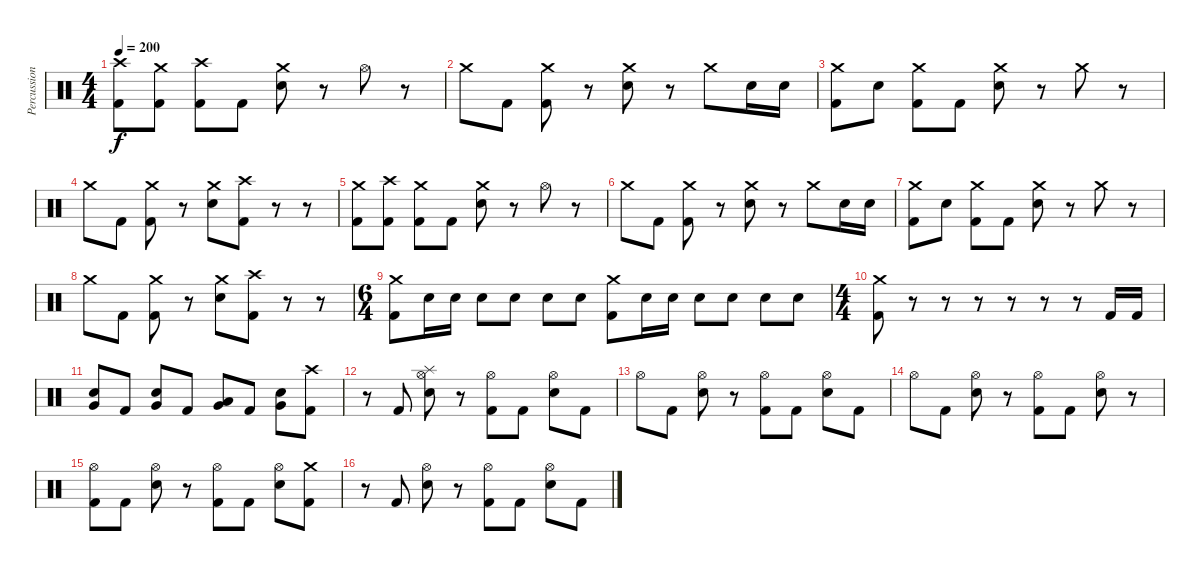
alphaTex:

\track ("Percussion" "Percussion") {instrument percussion}
\staff {score}
\articulation defaults
\ts (4 4)
\tempo 200
\clef neutral
\ks c
("Crash high (hit)" "Kick (hit) 2").8{dy f} ("Crash medium (hit)" "Kick (hit) 2").8 ("Crash high (hit)" "Kick (hit) 2").8 "Kick (hit) 2".8 ("Crash medium (hit)" "Snare (hit) 2").8 r.8 "Hi-Hat (open)".8 r.8 |
"Crash medium (hit)".8 "Kick (hit) 2".8 ("Crash medium (hit)" "Kick (hit) 2").8 r.8 ("Crash medium (hit)" "Snare (hit) 2").8 r.8 "Crash medium (hit)".8 "Snare (hit) 2".16 "Snare (hit) 2".16 |
("Crash medium (hit)" "Kick (hit) 2").8 "Snare (hit) 2".8 ("Crash medium (hit)" "Kick (hit) 2").8 "Kick (hit) 2".8 ("Crash medium (hit)" "Snare (hit) 2").8 r.8 "Crash medium (hit)".8 r.8 |
"Crash medium (hit)".8 "Kick (hit) 2".8 ("Crash medium (hit)" "Kick (hit) 2").8 r.8 ("Crash medium (hit)" "Snare (hit) 2").8 ("Crash high (hit)" "Kick (hit) 2").8 r.8 r.8 |
("Crash medium (hit)" "Kick (hit) 2").8 ("Crash high (hit)" "Kick (hit) 2").8 ("Crash medium (hit)" "Kick (hit) 2").8 "Kick (hit) 2".8 ("Crash medium (hit)" "Snare (hit) 2").8 r.8 "Hi-Hat (open)".8 r.8 |
"Crash medium (hit)".8 "Kick (hit) 2".8 ("Crash medium (hit)" "Kick (hit) 2").8 r.8 ("Crash medium (hit)" "Snare (hit) 2").8 r.8 "Crash medium (hit)".8 "Snare (hit) 2".16 "Snare (hit) 2".16 |
("Crash medium (hit)" "Kick (hit) 2").8 "Snare (hit) 2".8 ("Crash medium (hit)" "Kick (hit) 2").8 "Kick (hit) 2".8 ("Crash medium (hit)" "Snare (hit) 2").8 r.8 "Crash medium (hit)".8 r.8 |
"Crash medium (hit)".8 "Kick (hit) 2".8 ("Crash medium (hit)" "Kick (hit) 2").8 r.8 ("Crash medium (hit)" "Snare (hit) 2").8 ("Crash high (hit)" "Kick (hit) 2").8 r.8 r.8 |
\ts (6 4)
("Crash medium (hit)" "Kick (hit) 2").8 "Snare (hit) 2".16 "Snare (hit) 2".16 "Snare (hit) 2".8 "Snare (hit) 2".8 "Snare (hit) 2".8 "Snare (hit) 2".8 ("Crash medium (hit)" "Kick (hit) 2").8 "Snare (hit) 2".16 "Snare (hit) 2".16 "Snare (hit) 2".8 "Snare (hit) 2".8 "Snare (hit) 2".8 "Snare (hit) 2".8 |
\ts (4 4)
("Crash medium (hit)" "Kick (hit) 2").8 r.8 r.8 r.8 r.8 r.8 r.8 "Kick (hit) 2".16 "Kick (hit) 2".16 |
("Very Low Tom (hit)" "Snare (hit) 2").8 "Kick (hit) 2".8 ("Very Low Tom (hit)" "Snare (hit) 2").8 "Kick (hit) 2".8 ("Very Low Tom (hit)" "Low Floor Tom (hit)").8 "Kick (hit) 2".8 ("Very Low Tom (hit)" "Snare (hit) 2").8 ("Crash high (hit)" "Kick (hit) 2").8 |
r.8 "Kick (hit) 2".8 ("Hi-Hat (open)" "Splash (hit)" "Snare (hit) 2").8 r.8 ("Hi-Hat (open)" "Kick (hit) 2").8 "Kick (hit) 2".8 ("Hi-Hat (open)" "Snare (hit) 2").8 "Kick (hit) 2".8 |
"Hi-Hat (open)".8 "Kick (hit) 2".8 ("Hi-Hat (open)" "Snare (hit) 2").8 r.8 ("Hi-Hat (open)" "Kick (hit) 2").8 "Kick (hit) 2".8 ("Hi-Hat (open)" "Snare (hit) 2").8 "Kick (hit) 2".8 |
"Hi-Hat (open)".8 "Kick (hit) 2".8 ("Hi-Hat (open)" "Snare (hit) 2").8 r.8 ("Hi-Hat (open)" "Kick (hit) 2").8 "Kick (hit) 2".8 ("Hi-Hat (open)" "Snare (hit) 2").8 r.8 |
("Hi-Hat (open)" "Kick (hit) 2").8 "Kick (hit) 2".8 ("Hi-Hat (open)" "Snare (hit) 2").8 r.8 ("Hi-Hat (open)" "Kick (hit) 2").8 "Kick (hit) 2".8 ("Hi-Hat (open)" "Snare (hit) 2").8 ("Crash medium (hit)" "Kick (hit) 2").8 |
r.8 "Kick (hit) 2".8 ("Hi-Hat (open)" "Snare (hit) 2").8 r.8 ("Hi-Hat (open)" "Kick (hit) 2").8 "Kick (hit) 2".8 ("Hi-Hat (open)" "Snare (hit) 2").8 "Kick (hit) 2".8
